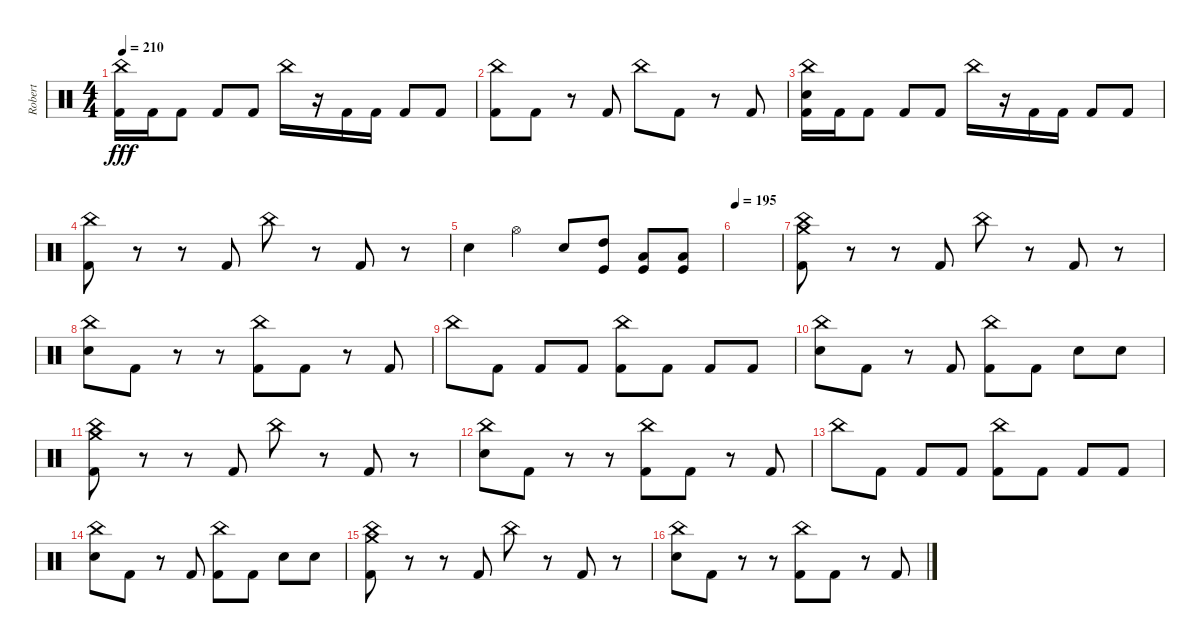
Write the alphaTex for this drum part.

\track ("Robert" "Robert") {instrument percussion}
\staff {score}
\articulation defaults
\ts (4 4)
\tempo 210
\clef neutral
\ks c
("China (hit)" "Kick (hit) 2").16{dy fff} "Kick (hit) 2".16 "Kick (hit) 2".8 "Kick (hit) 2".8 "Kick (hit) 2".8 "China (hit)".16 r.16 "Kick (hit) 2".16 "Kick (hit) 2".16 "Kick (hit) 2".8 "Kick (hit) 2".8 |
("China (hit)" "Kick (hit) 2").8 "Kick (hit) 2".8 r.8 "Kick (hit) 2".8 "China (hit)".8 "Kick (hit) 2".8 r.8 "Kick (hit) 2".8 |
("China (hit)" "Electric Snare (hit)" "Kick (hit) 2").16 "Kick (hit) 2".16 "Kick (hit) 2".8 "Kick (hit) 2".8 "Kick (hit) 2".8 "China (hit)".16 r.16 "Kick (hit) 2".16 "Kick (hit) 2".16 "Kick (hit) 2".8 "Kick (hit) 2".8 |
("China (hit)" "Kick (hit) 2").8 r.8 r.8 "Kick (hit) 2".8 "China (hit)".8 r.8 "Kick (hit) 2".8 r.8 |
"Electric Snare (hit)".4 "Hi-Hat (open)".4 "Electric Snare (hit)".8 ("High Tom (hit)" "Kick (hit)").8 ("Low Tom (hit)" "Kick (hit)").8 ("Low Floor Tom (hit)" "Kick (hit)").8 |
\tempo 195
|
("China (hit)" "Crash medium (hit)" "Kick (hit) 2").8 r.8 r.8 "Kick (hit) 2".8 "China (hit)".8 r.8 "Kick (hit) 2".8 r.8 |
("Electric Snare (hit)" "China (hit)").8 "Kick (hit) 2".8 r.8 r.8 ("Kick (hit) 2" "China (hit)").8 "Kick (hit) 2".8 r.8 "Kick (hit) 2".8 |
"China (hit)".8 "Kick (hit) 2".8 "Kick (hit) 2".8 "Kick (hit) 2".8 ("China (hit)" "Kick (hit) 2").8 "Kick (hit) 2".8 "Kick (hit) 2".8 "Kick (hit) 2".8 |
("Electric Snare (hit)" "China (hit)").8 "Kick (hit) 2".8 r.8 "Kick (hit) 2".8 ("Kick (hit) 2" "China (hit)").8 "Kick (hit) 2".8 "Electric Snare (hit)".8 "Electric Snare (hit)".8 |
("China (hit)" "Crash medium (hit)" "Kick (hit) 2").8 r.8 r.8 "Kick (hit) 2".8 "China (hit)".8 r.8 "Kick (hit) 2".8 r.8 |
("Electric Snare (hit)" "China (hit)").8 "Kick (hit) 2".8 r.8 r.8 ("Kick (hit) 2" "China (hit)").8 "Kick (hit) 2".8 r.8 "Kick (hit) 2".8 |
"China (hit)".8 "Kick (hit) 2".8 "Kick (hit) 2".8 "Kick (hit) 2".8 ("China (hit)" "Kick (hit) 2").8 "Kick (hit) 2".8 "Kick (hit) 2".8 "Kick (hit) 2".8 |
("Electric Snare (hit)" "China (hit)").8 "Kick (hit) 2".8 r.8 "Kick (hit) 2".8 ("Kick (hit) 2" "China (hit)").8 "Kick (hit) 2".8 "Electric Snare (hit)".8 "Electric Snare (hit)".8 |
("China (hit)" "Crash medium (hit)" "Kick (hit) 2").8 r.8 r.8 "Kick (hit) 2".8 "China (hit)".8 r.8 "Kick (hit) 2".8 r.8 |
("Electric Snare (hit)" "China (hit)").8 "Kick (hit) 2".8 r.8 r.8 ("Kick (hit) 2" "China (hit)").8 "Kick (hit) 2".8 r.8 "Kick (hit) 2".8
